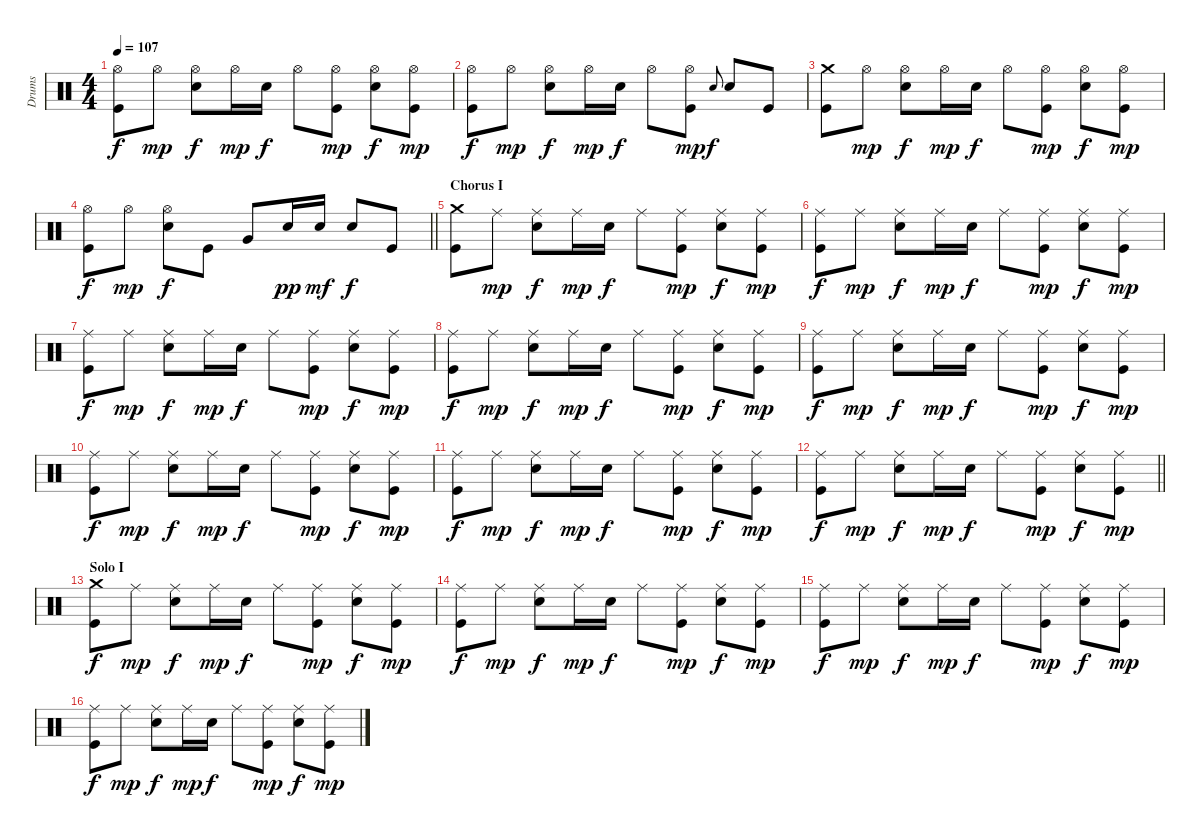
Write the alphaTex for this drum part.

\track ("Drums" "Drums") {instrument percussion}
\staff {score}
\articulation defaults
\ts (4 4)
\tempo 107
\clef neutral
\ks c
("Hi-Hat (open)" "Kick (hit)").8{dy f} "Hi-Hat (open)".8{dy mp} ("Hi-Hat (open)" "Electric Snare (hit)").8{dy f} "Hi-Hat (open)".16{dy mp} "Electric Snare (hit)".16{dy f} "Hi-Hat (open)".8 ("Hi-Hat (open)" "Kick (hit)").8{dy mp} ("Hi-Hat (open)" "Electric Snare (hit)").8{dy f} ("Hi-Hat (open)" "Kick (hit)").8{dy mp} |
("Hi-Hat (open)" "Kick (hit)").8{dy f} "Hi-Hat (open)".8{dy mp} ("Hi-Hat (open)" "Electric Snare (hit)").8{dy f} "Hi-Hat (open)".16{dy mp} "Electric Snare (hit)".16{dy f} "Hi-Hat (open)".8 ("Hi-Hat (open)" "Kick (hit)").8{dy mp} "Electric Snare (hit)".8{gr onbeat dy f} "Electric Snare (hit)".8 "Kick (hit)".8 |
("Crash medium (hit)" "Kick (hit)").8 "Hi-Hat (open)".8{dy mp} ("Hi-Hat (open)" "Electric Snare (hit)").8{dy f} "Hi-Hat (open)".16{dy mp} "Electric Snare (hit)".16{dy f} "Hi-Hat (open)".8 ("Hi-Hat (open)" "Kick (hit)").8{dy mp} ("Hi-Hat (open)" "Electric Snare (hit)").8{dy f} ("Hi-Hat (open)" "Kick (hit)").8{dy mp} |
\barLineRight lightlight
("Hi-Hat (open)" "Kick (hit)").8{dy f} "Hi-Hat (open)".8{dy mp} ("Hi-Hat (open)" "Electric Snare (hit)").8{dy f} "Kick (hit)".8 "Very Low Tom (hit)".8 "Electric Snare (hit)".16{dy pp} "Electric Snare (hit)".16{dy mf} "Electric Snare (hit)".8{dy f} "Kick (hit)".8 |
\section ("" "Chorus I")
("Crash medium (hit)" "Kick (hit)").8 "Ride (middle)".8{dy mp} ("Ride (middle)" "Electric Snare (hit)").8{dy f} "Ride (middle)".16{dy mp} "Electric Snare (hit)".16{dy f} "Ride (middle)".8 ("Ride (middle)" "Kick (hit)").8{dy mp} ("Ride (middle)" "Electric Snare (hit)").8{dy f} ("Ride (middle)" "Kick (hit)").8{dy mp} |
("Ride (middle)" "Kick (hit)").8{dy f} "Ride (middle)".8{dy mp} ("Ride (middle)" "Electric Snare (hit)").8{dy f} "Ride (middle)".16{dy mp} "Electric Snare (hit)".16{dy f} "Ride (middle)".8 ("Ride (middle)" "Kick (hit)").8{dy mp} ("Ride (middle)" "Electric Snare (hit)").8{dy f} ("Ride (middle)" "Kick (hit)").8{dy mp} |
("Ride (middle)" "Kick (hit)").8{dy f} "Ride (middle)".8{dy mp} ("Ride (middle)" "Electric Snare (hit)").8{dy f} "Ride (middle)".16{dy mp} "Electric Snare (hit)".16{dy f} "Ride (middle)".8 ("Ride (middle)" "Kick (hit)").8{dy mp} ("Ride (middle)" "Electric Snare (hit)").8{dy f} ("Ride (middle)" "Kick (hit)").8{dy mp} |
("Ride (middle)" "Kick (hit)").8{dy f} "Ride (middle)".8{dy mp} ("Ride (middle)" "Electric Snare (hit)").8{dy f} "Ride (middle)".16{dy mp} "Electric Snare (hit)".16{dy f} "Ride (middle)".8 ("Ride (middle)" "Kick (hit)").8{dy mp} ("Ride (middle)" "Electric Snare (hit)").8{dy f} ("Ride (middle)" "Kick (hit)").8{dy mp} |
("Ride (middle)" "Kick (hit)").8{dy f} "Ride (middle)".8{dy mp} ("Ride (middle)" "Electric Snare (hit)").8{dy f} "Ride (middle)".16{dy mp} "Electric Snare (hit)".16{dy f} "Ride (middle)".8 ("Ride (middle)" "Kick (hit)").8{dy mp} ("Ride (middle)" "Electric Snare (hit)").8{dy f} ("Ride (middle)" "Kick (hit)").8{dy mp} |
("Ride (middle)" "Kick (hit)").8{dy f} "Ride (middle)".8{dy mp} ("Ride (middle)" "Electric Snare (hit)").8{dy f} "Ride (middle)".16{dy mp} "Electric Snare (hit)".16{dy f} "Ride (middle)".8 ("Ride (middle)" "Kick (hit)").8{dy mp} ("Ride (middle)" "Electric Snare (hit)").8{dy f} ("Ride (middle)" "Kick (hit)").8{dy mp} |
("Ride (middle)" "Kick (hit)").8{dy f} "Ride (middle)".8{dy mp} ("Ride (middle)" "Electric Snare (hit)").8{dy f} "Ride (middle)".16{dy mp} "Electric Snare (hit)".16{dy f} "Ride (middle)".8 ("Ride (middle)" "Kick (hit)").8{dy mp} ("Ride (middle)" "Electric Snare (hit)").8{dy f} ("Ride (middle)" "Kick (hit)").8{dy mp} |
\barLineRight lightlight
("Ride (middle)" "Kick (hit)").8{dy f} "Ride (middle)".8{dy mp} ("Ride (middle)" "Electric Snare (hit)").8{dy f} "Ride (middle)".16{dy mp} "Electric Snare (hit)".16{dy f} "Ride (middle)".8 ("Ride (middle)" "Kick (hit)").8{dy mp} ("Ride (middle)" "Electric Snare (hit)").8{dy f} ("Ride (middle)" "Kick (hit)").8{dy mp} |
\section ("" "Solo I")
("Crash medium (hit)" "Kick (hit)").8{dy f} "Ride (middle)".8{dy mp} ("Ride (middle)" "Electric Snare (hit)").8{dy f} "Ride (middle)".16{dy mp} "Electric Snare (hit)".16{dy f} "Ride (middle)".8 ("Ride (middle)" "Kick (hit)").8{dy mp} ("Ride (middle)" "Electric Snare (hit)").8{dy f} ("Ride (middle)" "Kick (hit)").8{dy mp} |
("Ride (middle)" "Kick (hit)").8{dy f} "Ride (middle)".8{dy mp} ("Ride (middle)" "Electric Snare (hit)").8{dy f} "Ride (middle)".16{dy mp} "Electric Snare (hit)".16{dy f} "Ride (middle)".8 ("Ride (middle)" "Kick (hit)").8{dy mp} ("Ride (middle)" "Electric Snare (hit)").8{dy f} ("Ride (middle)" "Kick (hit)").8{dy mp} |
("Ride (middle)" "Kick (hit)").8{dy f} "Ride (middle)".8{dy mp} ("Ride (middle)" "Electric Snare (hit)").8{dy f} "Ride (middle)".16{dy mp} "Electric Snare (hit)".16{dy f} "Ride (middle)".8 ("Ride (middle)" "Kick (hit)").8{dy mp} ("Ride (middle)" "Electric Snare (hit)").8{dy f} ("Ride (middle)" "Kick (hit)").8{dy mp} |
("Ride (middle)" "Kick (hit)").8{dy f} "Ride (middle)".8{dy mp} ("Ride (middle)" "Electric Snare (hit)").8{dy f} "Ride (middle)".16{dy mp} "Electric Snare (hit)".16{dy f} "Ride (middle)".8 ("Ride (middle)" "Kick (hit)").8{dy mp} ("Ride (middle)" "Electric Snare (hit)").8{dy f} ("Ride (middle)" "Kick (hit)").8{dy mp}
